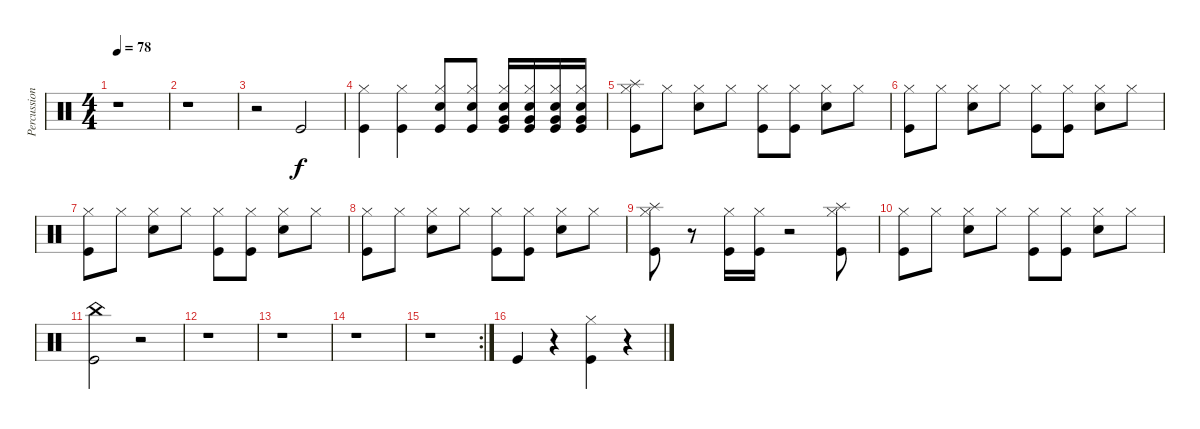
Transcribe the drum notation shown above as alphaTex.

\track ("Percussion" "Percussion") {instrument percussion}
\staff {score}
\articulation defaults
\ts (4 4)
\tempo 78
\clef neutral
\ks c
r.1{dy f} |
r.1 |
r.2 "Kick (hit)".2 |
("Hi-Hat (closed)" "Kick (hit)").4 ("Hi-Hat (closed)" "Kick (hit)").4 ("Hi-Hat (closed)" "Snare (hit) 2" "Kick (hit)").8 ("Hi-Hat (closed)" "Snare (hit) 2" "Kick (hit)").8 ("Hi-Hat (closed)" "Snare (hit) 2" "Very Low Tom (hit)" "Kick (hit)").16 ("Hi-Hat (closed)" "Snare (hit) 2" "Very Low Tom (hit)" "Kick (hit)").16 ("Hi-Hat (closed)" "Snare (hit) 2" "Very Low Tom (hit)" "Kick (hit)").16 ("Hi-Hat (closed)" "Snare (hit) 2" "Very Low Tom (hit)" "Kick (hit)").16 |
("Splash (hit)" "Hi-Hat (closed)" "Kick (hit)").8 "Hi-Hat (closed)".8 ("Hi-Hat (closed)" "Snare (hit) 2").8 "Hi-Hat (closed)".8 ("Hi-Hat (closed)" "Kick (hit)").8 ("Hi-Hat (closed)" "Kick (hit)").8 ("Hi-Hat (closed)" "Snare (hit) 2").8 "Hi-Hat (closed)".8 |
("Hi-Hat (closed)" "Kick (hit)").8 "Hi-Hat (closed)".8 ("Hi-Hat (closed)" "Snare (hit) 2").8 "Hi-Hat (closed)".8 ("Hi-Hat (closed)" "Kick (hit)").8 ("Hi-Hat (closed)" "Kick (hit)").8 ("Hi-Hat (closed)" "Snare (hit) 2").8 "Hi-Hat (closed)".8 |
("Hi-Hat (closed)" "Kick (hit)").8 "Hi-Hat (closed)".8 ("Hi-Hat (closed)" "Snare (hit) 2").8 "Hi-Hat (closed)".8 ("Hi-Hat (closed)" "Kick (hit)").8 ("Hi-Hat (closed)" "Kick (hit)").8 ("Hi-Hat (closed)" "Snare (hit) 2").8 "Hi-Hat (closed)".8 |
("Hi-Hat (closed)" "Kick (hit)").8 "Hi-Hat (closed)".8 ("Hi-Hat (closed)" "Snare (hit) 2").8 "Hi-Hat (closed)".8 ("Hi-Hat (closed)" "Kick (hit)").8 ("Hi-Hat (closed)" "Kick (hit)").8 ("Hi-Hat (closed)" "Snare (hit) 2").8 "Hi-Hat (closed)".8 |
("Splash (hit)" "Hi-Hat (closed)" "Kick (hit)").8 r.8 ("Hi-Hat (closed)" "Kick (hit)").16 ("Hi-Hat (closed)" "Kick (hit)").16 r.2 ("Splash (hit)" "Hi-Hat (closed)" "Kick (hit)").8 |
("Hi-Hat (closed)" "Kick (hit)").8 "Hi-Hat (closed)".8 ("Hi-Hat (closed)" "Snare (hit) 2").8 "Hi-Hat (closed)".8 ("Hi-Hat (closed)" "Kick (hit)").8 ("Hi-Hat (closed)" "Kick (hit)").8 ("Hi-Hat (closed)" "Snare (hit) 2").8 "Hi-Hat (closed)".8 |
("China (hit)" "Kick (hit)").2 r.2 |
r.1 |
r.1 |
r.1 |
\rc 2
r.1 |
"Kick (hit)".4 r.4 ("Hi-Hat (closed)" "Kick (hit)").4 r.4
